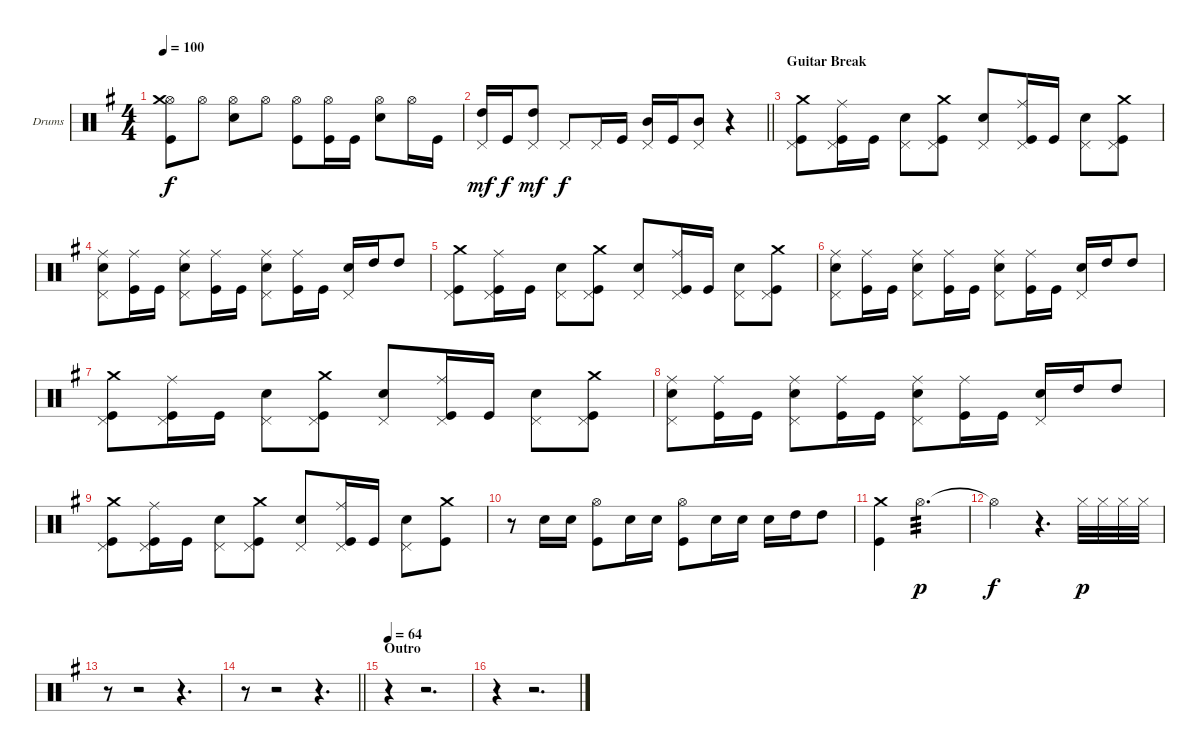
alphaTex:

\bracketExtendMode groupsimilarinstruments
\firstSystemTrackNameOrientation horizontal
\otherSystemsTrackNameOrientation horizontal
\track ("Барабаны" "Drums") {instrument percussion}
\staff {score}
\articulation defaults
\ts (4 4)
\tempo 100
\clef neutral
\ks eminor
("Hi-Hat (open)" "Crash medium (hit)" "Kick (hit)").8{dy f} "Hi-Hat (open)".8 ("Hi-Hat (open)" "Snare (hit) 2").8 "Hi-Hat (open)".8 ("Hi-Hat (open)" "Kick (hit)").8 ("Hi-Hat (open)" "Kick (hit)").16 "Kick (hit)".16 ("Hi-Hat (open)" "Snare (hit) 2").8 "Hi-Hat (open)".16 "Kick (hit)".16 |
\barLineRight lightlight
("High Tom (hit)" "Pedal Hi-Hat (hit)").16{dy mf} "Kick (hit)".16{dy f} ("Pedal Hi-Hat (hit)" "High Tom (hit)").8{dy mf} "Pedal Hi-Hat (hit)".8{dy f} "Pedal Hi-Hat (hit)".16 "Kick (hit)".16 ("Mid Tom (hit)" "Pedal Hi-Hat (hit)").16 "Kick (hit)".16 ("Mid Tom (hit)" "Pedal Hi-Hat (hit)").8 r.4 |
\section ("" "Guitar Break")
("Kick (hit)" "Crash medium (hit)" "Pedal Hi-Hat (hit)").8 ("Kick (hit)" "Pedal Hi-Hat (hit)" "Ride (middle)").16 "Kick (hit)".16 ("Snare (hit) 2" "Pedal Hi-Hat (hit)").8 ("Kick (hit)" "Crash medium (hit)" "Pedal Hi-Hat (hit)").8 ("Pedal Hi-Hat (hit)" "Snare (hit) 2").8 ("Kick (hit)" "Ride (middle)" "Pedal Hi-Hat (hit)").16 "Kick (hit)".16 ("Snare (hit) 2" "Pedal Hi-Hat (hit)").8 ("Kick (hit)" "Crash medium (hit)" "Pedal Hi-Hat (hit)").8 |
("Pedal Hi-Hat (hit)" "Snare (hit) 2" "Ride (middle)").8 ("Kick (hit)" "Ride (middle)").16 "Kick (hit)".16 ("Snare (hit) 2" "Pedal Hi-Hat (hit)" "Ride (middle)").8 ("Kick (hit)" "Ride (middle)").16 "Kick (hit)".16 ("Pedal Hi-Hat (hit)" "Ride (middle)" "Snare (hit) 2").8 ("Kick (hit)" "Ride (middle)").16 "Kick (hit)".16 ("Pedal Hi-Hat (hit)" "Snare (hit) 2").16 "High Tom (hit)".16 "High Tom (hit)".8 |
("Kick (hit)" "Crash medium (hit)" "Pedal Hi-Hat (hit)").8 ("Kick (hit)" "Pedal Hi-Hat (hit)" "Ride (middle)").16 "Kick (hit)".16 ("Snare (hit) 2" "Pedal Hi-Hat (hit)").8 ("Kick (hit)" "Crash medium (hit)" "Pedal Hi-Hat (hit)").8 ("Pedal Hi-Hat (hit)" "Snare (hit) 2").8 ("Kick (hit)" "Ride (middle)" "Pedal Hi-Hat (hit)").16 "Kick (hit)".16 ("Snare (hit) 2" "Pedal Hi-Hat (hit)").8 ("Kick (hit)" "Crash medium (hit)" "Pedal Hi-Hat (hit)").8 |
("Pedal Hi-Hat (hit)" "Snare (hit) 2" "Ride (middle)").8 ("Kick (hit)" "Ride (middle)").16 "Kick (hit)".16 ("Snare (hit) 2" "Pedal Hi-Hat (hit)" "Ride (middle)").8 ("Kick (hit)" "Ride (middle)").16 "Kick (hit)".16 ("Pedal Hi-Hat (hit)" "Ride (middle)" "Snare (hit) 2").8 ("Kick (hit)" "Ride (middle)").16 "Kick (hit)".16 ("Pedal Hi-Hat (hit)" "Snare (hit) 2").16 "High Tom (hit)".16 "High Tom (hit)".8 |
("Kick (hit)" "Crash medium (hit)" "Pedal Hi-Hat (hit)").8 ("Kick (hit)" "Pedal Hi-Hat (hit)" "Ride (middle)").16 "Kick (hit)".16 ("Snare (hit) 2" "Pedal Hi-Hat (hit)").8 ("Kick (hit)" "Crash medium (hit)" "Pedal Hi-Hat (hit)").8 ("Pedal Hi-Hat (hit)" "Snare (hit) 2").8 ("Kick (hit)" "Ride (middle)" "Pedal Hi-Hat (hit)").16 "Kick (hit)".16 ("Snare (hit) 2" "Pedal Hi-Hat (hit)").8 ("Kick (hit)" "Crash medium (hit)" "Pedal Hi-Hat (hit)").8 |
("Pedal Hi-Hat (hit)" "Snare (hit) 2" "Ride (middle)").8 ("Kick (hit)" "Ride (middle)").16 "Kick (hit)".16 ("Snare (hit) 2" "Pedal Hi-Hat (hit)" "Ride (middle)").8 ("Kick (hit)" "Ride (middle)").16 "Kick (hit)".16 ("Pedal Hi-Hat (hit)" "Ride (middle)" "Snare (hit) 2").8 ("Kick (hit)" "Ride (middle)").16 "Kick (hit)".16 ("Pedal Hi-Hat (hit)" "Snare (hit) 2").16 "High Tom (hit)".16 "High Tom (hit)".8 |
("Kick (hit)" "Crash medium (hit)" "Pedal Hi-Hat (hit)").8 ("Kick (hit)" "Pedal Hi-Hat (hit)" "Ride (middle)").16 "Kick (hit)".16 ("Snare (hit) 2" "Pedal Hi-Hat (hit)").8 ("Kick (hit)" "Crash medium (hit)" "Pedal Hi-Hat (hit)").8 ("Pedal Hi-Hat (hit)" "Snare (hit) 2").8 ("Kick (hit)" "Ride (middle)" "Pedal Hi-Hat (hit)").16 "Kick (hit)".16 ("Snare (hit) 2" "Pedal Hi-Hat (hit)").8 ("Kick (hit)" "Crash medium (hit)").8 |
r.8 "Snare (hit) 2".16 "Snare (hit) 2".16 ("Kick (hit)" "Hi-Hat (open)").8 "Snare (hit) 2".16 "Snare (hit) 2".16 ("Kick (hit)" "Hi-Hat (open)").8 "Snare (hit) 2".16 "Snare (hit) 2".16 "Snare (hit) 2".16 "High Tom (hit)".16 "High Tom (hit)".8 |
("Kick (hit)" "Crash medium (hit)").4 "Hi-Hat (open)".2{d tp 3 dy p} |
"Hi-Hat (open)"{t}.2{dy f} r.4{d} "Hi-Hat (closed)".32{dy p} "Hi-Hat (closed)".32 "Hi-Hat (closed)".32 "Hi-Hat (closed)".32 |
r.8 r.2 r.4{d} |
\barLineRight lightlight
r.8 r.2 r.4{d} |
\section ("" "Outro")
\tempo 64
r.4 r.2{d} |
r.4 r.2{d}
